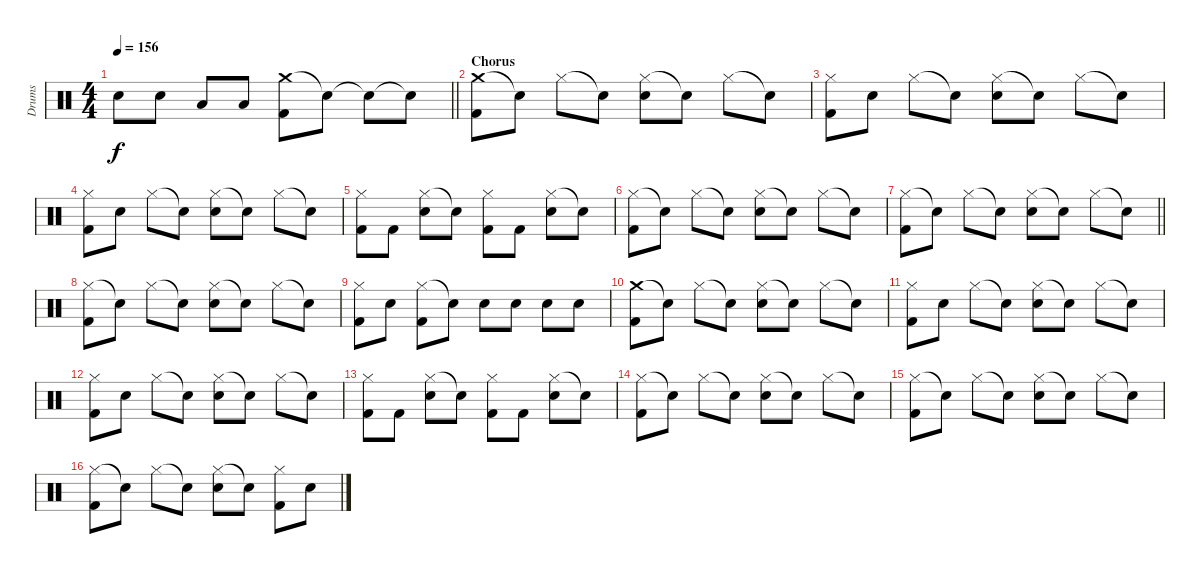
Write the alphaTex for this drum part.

\track ("Drums" "Drums") {instrument percussion}
\staff {score}
\articulation defaults
\ts (4 4)
\tempo 156
\clef neutral
\barLineRight lightlight
\ks c "Snare (hit) 2".8{dy f} "Snare (hit) 2".8 "Low Tom (hit)".8 "Low Tom (hit)".8
("Crash medium (hit)" "Kick (hit) 2").8 "Snare (hit)"{t}.8 "Snare (hit)"{t}.8 "Snare (hit)"{t}.8 |
\section ("" "Chorus")
("Crash medium (hit)" "Kick (hit) 2").8 "Snare (hit)"{t}.8 "Hi-Hat (closed)".8 "Snare (hit)"{t}.8 ("Hi-Hat (closed)" "Snare (hit) 2").8 "Snare (hit)"{t}.8 "Hi-Hat (closed)".8 "Snare (hit)"{t}.8 |
("Hi-Hat (closed)" "Kick (hit) 2").8 "Snare (hit) 2".8 "Hi-Hat (closed)".8 "Snare (hit)"{t}.8 ("Hi-Hat (closed)" "Snare (hit) 2").8 "Snare (hit)"{t}.8 "Hi-Hat (closed)".8 "Snare (hit)"{t}.8 |
("Hi-Hat (closed)" "Kick (hit) 2").8 "Snare (hit) 2".8 "Hi-Hat (closed)".8 "Snare (hit)"{t}.8 ("Hi-Hat (closed)" "Snare (hit) 2").8 "Snare (hit)"{t}.8 "Hi-Hat (closed)".8 "Snare (hit)"{t}.8 |
("Hi-Hat (closed)" "Kick (hit) 2").8 "Kick (hit) 2".8 ("Hi-Hat (closed)" "Snare (hit) 2").8 "Snare (hit)"{t}.8 ("Hi-Hat (closed)" "Kick (hit) 2").8 "Kick (hit) 2".8 ("Hi-Hat (closed)" "Snare (hit) 2").8 "Snare (hit)"{t}.8 |
("Hi-Hat (closed)" "Kick (hit) 2").8 "Snare (hit)"{t}.8 "Hi-Hat (closed)".8 "Snare (hit)"{t}.8 ("Hi-Hat (closed)" "Snare (hit) 2").8 "Snare (hit)"{t}.8 "Hi-Hat (closed)".8 "Snare (hit)"{t}.8 |
\barLineRight lightlight
("Hi-Hat (closed)" "Kick (hit) 2").8 "Snare (hit)"{t}.8 "Hi-Hat (closed)".8 "Snare (hit)"{t}.8 ("Hi-Hat (closed)" "Snare (hit) 2").8 "Snare (hit)"{t}.8 "Hi-Hat (closed)".8 "Snare (hit)"{t}.8 |
("Hi-Hat (closed)" "Kick (hit) 2").8 "Snare (hit)"{t}.8 "Hi-Hat (closed)".8 "Snare (hit)"{t}.8 ("Hi-Hat (closed)" "Snare (hit) 2").8 "Snare (hit)"{t}.8 "Hi-Hat (closed)".8 "Snare (hit)"{t}.8 |
("Hi-Hat (closed)" "Kick (hit) 2").8 "Snare (hit) 2".8 ("Hi-Hat (closed)" "Kick (hit) 2").8 "Snare (hit)"{t}.8 "Snare (hit) 2".8 "Snare (hit) 2".8 "Snare (hit) 2".8 "Snare (hit) 2".8 |
("Crash medium (hit)" "Kick (hit) 2").8 "Snare (hit)"{t}.8 "Hi-Hat (closed)".8 "Snare (hit)"{t}.8 ("Hi-Hat (closed)" "Snare (hit) 2").8 "Snare (hit)"{t}.8 "Hi-Hat (closed)".8 "Snare (hit)"{t}.8 |
("Hi-Hat (closed)" "Kick (hit) 2").8 "Snare (hit) 2".8 "Hi-Hat (closed)".8 "Snare (hit)"{t}.8 ("Hi-Hat (closed)" "Snare (hit) 2").8 "Snare (hit)"{t}.8 "Hi-Hat (closed)".8 "Snare (hit)"{t}.8 |
("Hi-Hat (closed)" "Kick (hit) 2").8 "Snare (hit) 2".8 "Hi-Hat (closed)".8 "Snare (hit)"{t}.8 ("Hi-Hat (closed)" "Snare (hit) 2").8 "Snare (hit)"{t}.8 "Hi-Hat (closed)".8 "Snare (hit)"{t}.8 |
("Hi-Hat (closed)" "Kick (hit) 2").8 "Kick (hit) 2".8 ("Hi-Hat (closed)" "Snare (hit) 2").8 "Snare (hit)"{t}.8 ("Hi-Hat (closed)" "Kick (hit) 2").8 "Kick (hit) 2".8 ("Hi-Hat (closed)" "Snare (hit) 2").8 "Snare (hit)"{t}.8 |
("Hi-Hat (closed)" "Kick (hit) 2").8 "Snare (hit)"{t}.8 "Hi-Hat (closed)".8 "Snare (hit)"{t}.8 ("Hi-Hat (closed)" "Snare (hit) 2").8 "Snare (hit)"{t}.8 "Hi-Hat (closed)".8 "Snare (hit)"{t}.8 |
("Hi-Hat (closed)" "Kick (hit) 2").8 "Snare (hit)"{t}.8 "Hi-Hat (closed)".8 "Snare (hit)"{t}.8 ("Hi-Hat (closed)" "Snare (hit) 2").8 "Snare (hit)"{t}.8 "Hi-Hat (closed)".8 "Snare (hit)"{t}.8 |
("Hi-Hat (closed)" "Kick (hit) 2").8 "Snare (hit)"{t}.8 "Hi-Hat (closed)".8 "Snare (hit)"{t}.8 ("Hi-Hat (closed)" "Snare (hit) 2").8 "Snare (hit)"{t}.8 ("Hi-Hat (closed)" "Kick (hit) 2").8 "Snare (hit) 2".8
